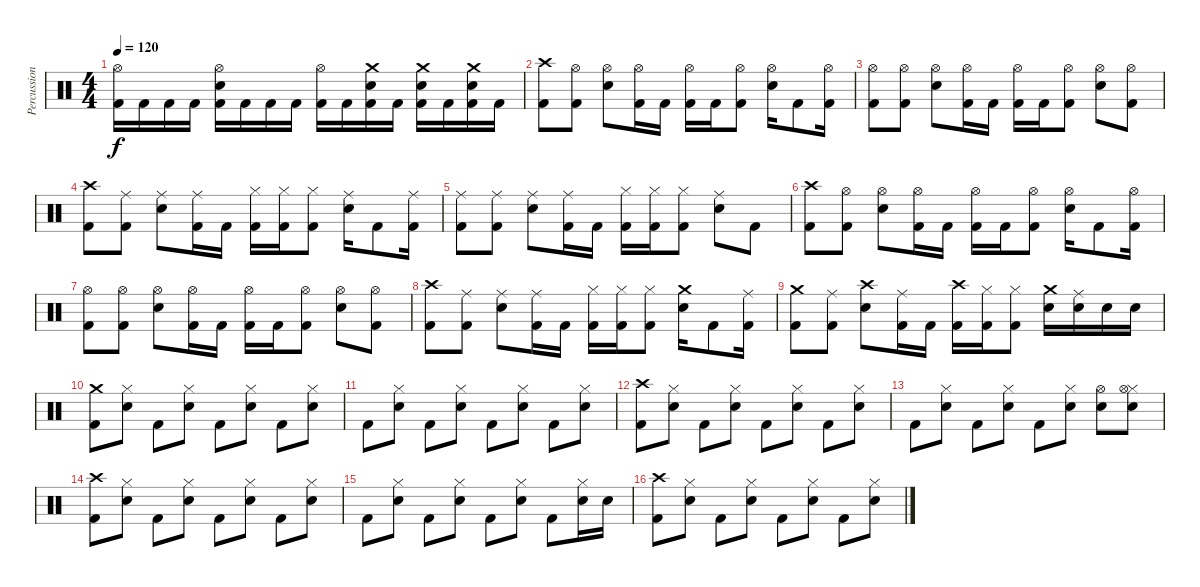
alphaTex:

\track ("Percussion" "Percussion") {instrument percussion}
\staff {score}
\articulation defaults
\ts (4 4)
\tempo 120
\clef neutral
\ks c
("Hi-Hat (open)" "Kick (hit) 2").16{dy f} "Kick (hit) 2".16 "Kick (hit) 2".16 "Kick (hit) 2".16 ("Hi-Hat (open)" "Snare (hit) 2" "Kick (hit) 2").16 "Kick (hit) 2".16 "Kick (hit) 2".16 "Kick (hit) 2".16 ("Hi-Hat (open)" "Kick (hit) 2").16 "Kick (hit) 2".16 ("Crash medium (hit)" "Snare (hit) 2" "Kick (hit) 2").16 "Kick (hit) 2".16 ("Crash medium (hit)" "Snare (hit) 2" "Kick (hit) 2").16 "Kick (hit) 2".16 ("Crash medium (hit)" "Snare (hit) 2" "Kick (hit) 2").16 "Kick (hit) 2".16 |
("Crash high (hit)" "Kick (hit) 2").8 ("Hi-Hat (open)" "Kick (hit) 2").8 ("Hi-Hat (open)" "Snare (hit) 2").8 ("Hi-Hat (open)" "Kick (hit) 2").16 "Kick (hit) 2".16 ("Hi-Hat (open)" "Kick (hit) 2").16 "Kick (hit) 2".16 ("Hi-Hat (open)" "Kick (hit) 2").8 ("Hi-Hat (open)" "Snare (hit) 2").16 "Kick (hit) 2".8 ("Hi-Hat (open)" "Kick (hit) 2").16 |
("Hi-Hat (open)" "Kick (hit) 2").8 ("Hi-Hat (open)" "Kick (hit) 2").8 ("Hi-Hat (open)" "Snare (hit) 2").8 ("Hi-Hat (open)" "Kick (hit) 2").16 "Kick (hit) 2".16 ("Hi-Hat (open)" "Kick (hit) 2").16 "Kick (hit) 2".16 ("Hi-Hat (open)" "Kick (hit) 2").8 ("Hi-Hat (open)" "Snare (hit) 2").8 ("Hi-Hat (open)" "Kick (hit) 2").8 |
("Crash high (hit)" "Kick (hit) 2").8 ("Ride (middle)" "Kick (hit) 2").8 ("Ride (middle)" "Snare (hit) 2").8 ("Ride (middle)" "Kick (hit) 2").16 "Kick (hit) 2".16 ("Hi-Hat (closed)" "Kick (hit) 2").16 ("Hi-Hat (closed)" "Kick (hit) 2").16 ("Hi-Hat (closed)" "Kick (hit) 2").8 ("Ride (middle)" "Snare (hit) 2").16 "Kick (hit) 2".8 ("Ride (middle)" "Kick (hit) 2").16 |
("Ride (middle)" "Kick (hit) 2").8 ("Ride (middle)" "Kick (hit) 2").8 ("Ride (middle)" "Snare (hit) 2").8 ("Ride (middle)" "Kick (hit) 2").16 "Kick (hit) 2".16 ("Hi-Hat (closed)" "Kick (hit) 2").16 ("Hi-Hat (closed)" "Kick (hit) 2").16 ("Hi-Hat (closed)" "Kick (hit) 2").8 ("Ride (middle)" "Snare (hit) 2").8 "Kick (hit) 2".8 |
("Crash high (hit)" "Kick (hit) 2").8 ("Hi-Hat (open)" "Kick (hit) 2").8 ("Hi-Hat (open)" "Snare (hit) 2").8 ("Hi-Hat (open)" "Kick (hit) 2").16 "Kick (hit) 2".16 ("Hi-Hat (open)" "Kick (hit) 2").16 "Kick (hit) 2".16 ("Hi-Hat (open)" "Kick (hit) 2").8 ("Hi-Hat (open)" "Snare (hit) 2").16 "Kick (hit) 2".8 ("Hi-Hat (open)" "Kick (hit) 2").16 |
("Hi-Hat (open)" "Kick (hit) 2").8 ("Hi-Hat (open)" "Kick (hit) 2").8 ("Hi-Hat (open)" "Snare (hit) 2").8 ("Hi-Hat (open)" "Kick (hit) 2").16 "Kick (hit) 2".16 ("Hi-Hat (open)" "Kick (hit) 2").16 "Kick (hit) 2".16 ("Hi-Hat (open)" "Kick (hit) 2").8 ("Hi-Hat (open)" "Snare (hit) 2").8 ("Hi-Hat (open)" "Kick (hit) 2").8 |
("Crash high (hit)" "Kick (hit) 2").8 ("Ride (middle)" "Kick (hit) 2").8 ("Ride (middle)" "Snare (hit) 2").8 ("Ride (middle)" "Kick (hit) 2").16 "Kick (hit) 2".16 ("Hi-Hat (closed)" "Kick (hit) 2").16 ("Hi-Hat (closed)" "Kick (hit) 2").16 ("Hi-Hat (closed)" "Kick (hit) 2").8 ("Crash medium (hit)" "Snare (hit) 2").16 "Kick (hit) 2".8 ("Ride (middle)" "Kick (hit) 2").16 |
("Crash medium (hit)" "Kick (hit) 2").8 ("Ride (middle)" "Kick (hit) 2").8 ("Crash high (hit)" "Snare (hit) 2").8 ("Ride (middle)" "Kick (hit) 2").16 "Kick (hit) 2".16 ("Crash high (hit)" "Kick (hit) 2").16 ("Hi-Hat (closed)" "Kick (hit) 2").16 ("Hi-Hat (closed)" "Kick (hit) 2").8 ("Crash medium (hit)" "Snare (hit) 2").16 ("Ride (middle)" "Snare (hit) 2").16 "Snare (hit) 2".16 "Snare (hit) 2".16 |
("Crash medium (hit)" "Kick (hit) 2").8 ("Hi-Hat (closed)" "Snare (hit) 2").8 "Kick (hit) 2".8 ("Hi-Hat (closed)" "Snare (hit) 2").8 "Kick (hit) 2".8 ("Hi-Hat (closed)" "Snare (hit) 2").8 "Kick (hit) 2".8 ("Hi-Hat (closed)" "Snare (hit) 2").8 |
"Kick (hit) 2".8 ("Hi-Hat (closed)" "Snare (hit) 2").8 "Kick (hit) 2".8 ("Hi-Hat (closed)" "Snare (hit) 2").8 "Kick (hit) 2".8 ("Hi-Hat (closed)" "Snare (hit) 2").8 "Kick (hit) 2".8 ("Hi-Hat (closed)" "Snare (hit) 2").8 |
("Crash high (hit)" "Kick (hit) 2").8 ("Hi-Hat (closed)" "Snare (hit) 2").8 "Kick (hit) 2".8 ("Hi-Hat (closed)" "Snare (hit) 2").8 "Kick (hit) 2".8 ("Hi-Hat (closed)" "Snare (hit) 2").8 "Kick (hit) 2".8 ("Hi-Hat (closed)" "Snare (hit) 2").8 |
"Kick (hit) 2".8 ("Hi-Hat (closed)" "Snare (hit) 2").8 "Kick (hit) 2".8 ("Hi-Hat (closed)" "Snare (hit) 2").8 "Kick (hit) 2".8 ("Hi-Hat (closed)" "Snare (hit) 2").8 ("Hi-Hat (open)" "Snare (hit) 2").8 ("Hi-Hat (closed)" "Hi-Hat (open)" "Snare (hit) 2").8 |
("Crash high (hit)" "Kick (hit) 2").8 ("Hi-Hat (closed)" "Snare (hit) 2").8 "Kick (hit) 2".8 ("Hi-Hat (closed)" "Snare (hit) 2").8 "Kick (hit) 2".8 ("Hi-Hat (closed)" "Snare (hit) 2").8 "Kick (hit) 2".8 ("Hi-Hat (closed)" "Snare (hit) 2").8 |
"Kick (hit) 2".8 ("Hi-Hat (closed)" "Snare (hit) 2").8 "Kick (hit) 2".8 ("Hi-Hat (closed)" "Snare (hit) 2").8 "Kick (hit) 2".8 ("Hi-Hat (closed)" "Snare (hit) 2").8 "Kick (hit) 2".8 ("Hi-Hat (closed)" "Snare (hit) 2").16 "Snare (hit) 2".16 |
("Crash high (hit)" "Kick (hit) 2").8 ("Hi-Hat (closed)" "Snare (hit) 2").8 "Kick (hit) 2".8 ("Hi-Hat (closed)" "Snare (hit) 2").8 "Kick (hit) 2".8 ("Hi-Hat (closed)" "Snare (hit) 2").8 "Kick (hit) 2".8 ("Hi-Hat (closed)" "Snare (hit) 2").8
